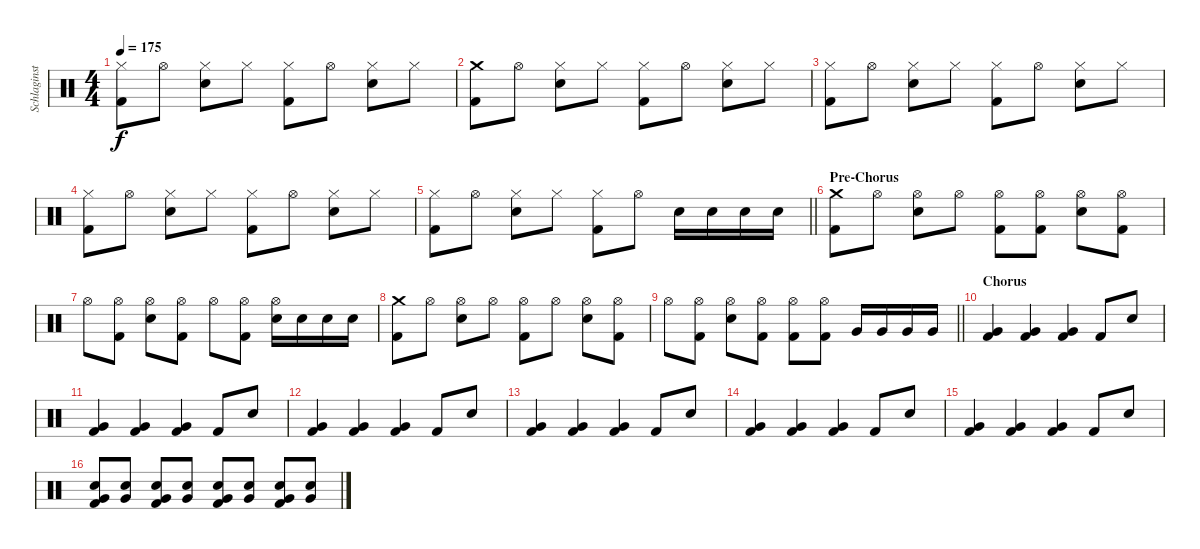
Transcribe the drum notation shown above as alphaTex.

\track ("Schlaginstrumente - Auswahl" "Schlaginst") {instrument percussion}
\staff {score}
\articulation defaults
\ts (4 4)
\tempo 175
\clef neutral
\ks c
("Hi-Hat (closed)" "Kick (hit) 2").8{dy f} "Hi-Hat (open)".8 ("Hi-Hat (closed)" "Snare (hit) 2").8 "Hi-Hat (closed)".8 ("Hi-Hat (closed)" "Kick (hit) 2").8 "Hi-Hat (open)".8 ("Hi-Hat (closed)" "Snare (hit) 2").8 "Hi-Hat (closed)".8 |
("Crash medium (hit)" "Kick (hit) 2").8 "Hi-Hat (open)".8 ("Hi-Hat (closed)" "Snare (hit) 2").8 "Hi-Hat (closed)".8 ("Hi-Hat (closed)" "Kick (hit) 2").8 "Hi-Hat (open)".8 ("Hi-Hat (closed)" "Snare (hit) 2").8 "Hi-Hat (closed)".8 |
("Hi-Hat (closed)" "Kick (hit) 2").8 "Hi-Hat (open)".8 ("Hi-Hat (closed)" "Snare (hit) 2").8 "Hi-Hat (closed)".8 ("Hi-Hat (closed)" "Kick (hit) 2").8 "Hi-Hat (open)".8 ("Hi-Hat (closed)" "Snare (hit) 2").8 "Hi-Hat (closed)".8 |
("Hi-Hat (closed)" "Kick (hit) 2").8 "Hi-Hat (open)".8 ("Hi-Hat (closed)" "Snare (hit) 2").8 "Hi-Hat (closed)".8 ("Hi-Hat (closed)" "Kick (hit) 2").8 "Hi-Hat (open)".8 ("Hi-Hat (closed)" "Snare (hit) 2").8 "Hi-Hat (closed)".8 |
\barLineRight lightlight
("Hi-Hat (closed)" "Kick (hit) 2").8 "Hi-Hat (open)".8 ("Hi-Hat (closed)" "Snare (hit) 2").8 "Hi-Hat (closed)".8 ("Hi-Hat (closed)" "Kick (hit) 2").8 "Hi-Hat (open)".8 "Snare (hit) 2".16 "Snare (hit) 2".16 "Snare (hit) 2".16 "Snare (hit) 2".16 |
\section ("" "Pre-Chorus")
("Crash medium (hit)" "Kick (hit) 2").8 "Hi-Hat (open)".8 ("Hi-Hat (open)" "Snare (hit) 2").8 "Hi-Hat (open)".8 ("Hi-Hat (open)" "Kick (hit) 2").8 ("Hi-Hat (open)" "Kick (hit) 2").8 ("Hi-Hat (open)" "Snare (hit) 2").8 ("Hi-Hat (open)" "Kick (hit) 2").8 |
"Hi-Hat (open)".8 ("Hi-Hat (open)" "Kick (hit) 2").8 ("Hi-Hat (open)" "Snare (hit) 2").8 ("Hi-Hat (open)" "Kick (hit) 2").8 "Hi-Hat (open)".8 ("Hi-Hat (open)" "Kick (hit) 2").8 ("Hi-Hat (open)" "Snare (hit) 2").16 "Snare (hit) 2".16 "Snare (hit) 2".16 "Snare (hit) 2".16 |
("Crash medium (hit)" "Kick (hit) 2").8 "Hi-Hat (open)".8 ("Hi-Hat (open)" "Snare (hit) 2").8 "Hi-Hat (open)".8 ("Hi-Hat (open)" "Kick (hit) 2").8 "Hi-Hat (open)".8 ("Hi-Hat (open)" "Snare (hit) 2").8 ("Hi-Hat (open)" "Kick (hit) 2").8 |
\barLineRight lightlight "Hi-Hat (open)".8
("Hi-Hat (open)" "Kick (hit) 2").8 ("Hi-Hat (open)" "Snare (hit) 2").8 ("Hi-Hat (open)" "Kick (hit) 2").8 ("Hi-Hat (open)" "Kick (hit) 2").8 ("Hi-Hat (open)" "Kick (hit) 2").8 "Very Low Tom (hit)".16 "Very Low Tom (hit)".16 "Very Low Tom (hit)".16 "Very Low Tom (hit)".16 |
\section ("" "Chorus")
("Very Low Tom (hit)" "Kick (hit) 2").4 ("Very Low Tom (hit)" "Kick (hit) 2").4 ("Very Low Tom (hit)" "Kick (hit) 2").4 "Kick (hit) 2".8 "Snare (hit) 2".8 |
("Very Low Tom (hit)" "Kick (hit) 2").4 ("Very Low Tom (hit)" "Kick (hit) 2").4 ("Very Low Tom (hit)" "Kick (hit) 2").4 "Kick (hit) 2".8 "Snare (hit) 2".8 |
("Very Low Tom (hit)" "Kick (hit) 2").4 ("Very Low Tom (hit)" "Kick (hit) 2").4 ("Very Low Tom (hit)" "Kick (hit) 2").4 "Kick (hit) 2".8 "Snare (hit) 2".8 |
("Very Low Tom (hit)" "Kick (hit) 2").4 ("Very Low Tom (hit)" "Kick (hit) 2").4 ("Very Low Tom (hit)" "Kick (hit) 2").4 "Kick (hit) 2".8 "Snare (hit) 2".8 |
("Very Low Tom (hit)" "Kick (hit) 2").4 ("Very Low Tom (hit)" "Kick (hit) 2").4 ("Very Low Tom (hit)" "Kick (hit) 2").4 "Kick (hit) 2".8 "Snare (hit) 2".8 |
("Very Low Tom (hit)" "Kick (hit) 2").4 ("Very Low Tom (hit)" "Kick (hit) 2").4 ("Very Low Tom (hit)" "Kick (hit) 2").4 "Kick (hit) 2".8 "Snare (hit) 2".8 |
("Very Low Tom (hit)" "Snare (hit) 2" "Kick (hit) 2").8 ("Very Low Tom (hit)" "Snare (hit) 2").8 ("Very Low Tom (hit)" "Snare (hit) 2" "Kick (hit) 2").8 ("Very Low Tom (hit)" "Snare (hit) 2").8 ("Very Low Tom (hit)" "Snare (hit) 2" "Kick (hit) 2").8 ("Very Low Tom (hit)" "Snare (hit) 2").8 ("Very Low Tom (hit)" "Snare (hit) 2" "Kick (hit) 2").8 ("Very Low Tom (hit)" "Snare (hit) 2").8
